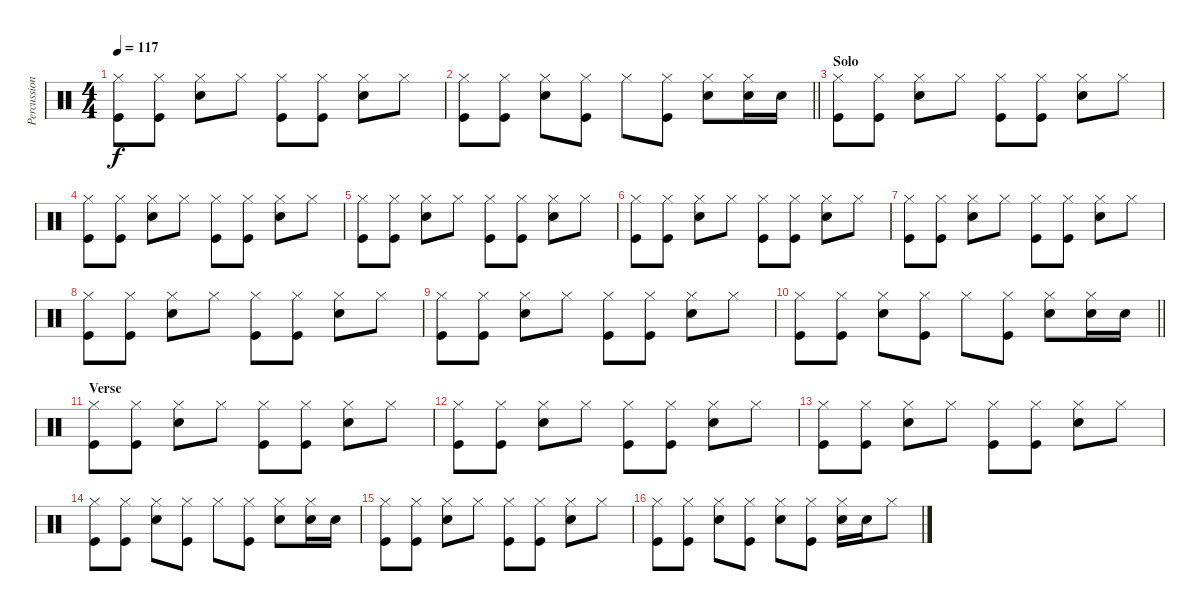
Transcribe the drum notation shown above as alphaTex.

\track ("Percussion" "Percussion") {instrument percussion}
\staff
\articulation defaults
\ts (4 4)
\tempo 117
\clef neutral
\ks c
("Hi-Hat (closed)" "Kick (hit)").8{dy f} ("Hi-Hat (closed)" "Kick (hit)").8 ("Hi-Hat (closed)" "Snare (hit) 2").8 "Hi-Hat (closed)".8 ("Hi-Hat (closed)" "Kick (hit)").8 ("Hi-Hat (closed)" "Kick (hit)").8 ("Hi-Hat (closed)" "Snare (hit) 2").8 "Hi-Hat (closed)".8 |
\barLineRight lightlight
("Hi-Hat (closed)" "Kick (hit)").8 ("Hi-Hat (closed)" "Kick (hit)").8 ("Hi-Hat (closed)" "Snare (hit) 2").8 ("Hi-Hat (closed)" "Kick (hit)").8 "Hi-Hat (closed)".8 ("Hi-Hat (closed)" "Kick (hit)").8 ("Hi-Hat (closed)" "Snare (hit) 2").8 ("Hi-Hat (closed)" "Snare (hit) 2").16 "Snare (hit) 2".16 |
\section ("" "Solo")
("Hi-Hat (closed)" "Kick (hit)").8 ("Hi-Hat (closed)" "Kick (hit)").8 ("Hi-Hat (closed)" "Snare (hit) 2").8 "Hi-Hat (closed)".8 ("Hi-Hat (closed)" "Kick (hit)").8 ("Hi-Hat (closed)" "Kick (hit)").8 ("Hi-Hat (closed)" "Snare (hit) 2").8 "Hi-Hat (closed)".8 |
("Hi-Hat (closed)" "Kick (hit)").8 ("Hi-Hat (closed)" "Kick (hit)").8 ("Hi-Hat (closed)" "Snare (hit) 2").8 "Hi-Hat (closed)".8 ("Hi-Hat (closed)" "Kick (hit)").8 ("Hi-Hat (closed)" "Kick (hit)").8 ("Hi-Hat (closed)" "Snare (hit) 2").8 "Hi-Hat (closed)".8 |
("Hi-Hat (closed)" "Kick (hit)").8 ("Hi-Hat (closed)" "Kick (hit)").8 ("Hi-Hat (closed)" "Snare (hit) 2").8 "Hi-Hat (closed)".8 ("Hi-Hat (closed)" "Kick (hit)").8 ("Hi-Hat (closed)" "Kick (hit)").8 ("Hi-Hat (closed)" "Snare (hit) 2").8 "Hi-Hat (closed)".8 |
("Hi-Hat (closed)" "Kick (hit)").8 ("Hi-Hat (closed)" "Kick (hit)").8 ("Hi-Hat (closed)" "Snare (hit) 2").8 "Hi-Hat (closed)".8 ("Hi-Hat (closed)" "Kick (hit)").8 ("Hi-Hat (closed)" "Kick (hit)").8 ("Hi-Hat (closed)" "Snare (hit) 2").8 "Hi-Hat (closed)".8 |
("Hi-Hat (closed)" "Kick (hit)").8 ("Hi-Hat (closed)" "Kick (hit)").8 ("Hi-Hat (closed)" "Snare (hit) 2").8 "Hi-Hat (closed)".8 ("Hi-Hat (closed)" "Kick (hit)").8 ("Hi-Hat (closed)" "Kick (hit)").8 ("Hi-Hat (closed)" "Snare (hit) 2").8 "Hi-Hat (closed)".8 |
("Hi-Hat (closed)" "Kick (hit)").8 ("Hi-Hat (closed)" "Kick (hit)").8 ("Hi-Hat (closed)" "Snare (hit) 2").8 "Hi-Hat (closed)".8 ("Hi-Hat (closed)" "Kick (hit)").8 ("Hi-Hat (closed)" "Kick (hit)").8 ("Hi-Hat (closed)" "Snare (hit) 2").8 "Hi-Hat (closed)".8 |
("Hi-Hat (closed)" "Kick (hit)").8 ("Hi-Hat (closed)" "Kick (hit)").8 ("Hi-Hat (closed)" "Snare (hit) 2").8 "Hi-Hat (closed)".8 ("Hi-Hat (closed)" "Kick (hit)").8 ("Hi-Hat (closed)" "Kick (hit)").8 ("Hi-Hat (closed)" "Snare (hit) 2").8 "Hi-Hat (closed)".8 |
\barLineRight lightlight
("Hi-Hat (closed)" "Kick (hit)").8 ("Hi-Hat (closed)" "Kick (hit)").8 ("Hi-Hat (closed)" "Snare (hit) 2").8 ("Hi-Hat (closed)" "Kick (hit)").8 "Hi-Hat (closed)".8 ("Hi-Hat (closed)" "Kick (hit)").8 ("Hi-Hat (closed)" "Snare (hit) 2").8 ("Hi-Hat (closed)" "Snare (hit) 2").16 "Snare (hit) 2".16 |
\section ("" "Verse")
("Hi-Hat (closed)" "Kick (hit)").8 ("Hi-Hat (closed)" "Kick (hit)").8 ("Hi-Hat (closed)" "Snare (hit) 2").8 "Hi-Hat (closed)".8 ("Hi-Hat (closed)" "Kick (hit)").8 ("Hi-Hat (closed)" "Kick (hit)").8 ("Hi-Hat (closed)" "Snare (hit) 2").8 "Hi-Hat (closed)".8 |
("Hi-Hat (closed)" "Kick (hit)").8 ("Hi-Hat (closed)" "Kick (hit)").8 ("Hi-Hat (closed)" "Snare (hit) 2").8 "Hi-Hat (closed)".8 ("Hi-Hat (closed)" "Kick (hit)").8 ("Hi-Hat (closed)" "Kick (hit)").8 ("Hi-Hat (closed)" "Snare (hit) 2").8 "Hi-Hat (closed)".8 |
("Hi-Hat (closed)" "Kick (hit)").8 ("Hi-Hat (closed)" "Kick (hit)").8 ("Hi-Hat (closed)" "Snare (hit) 2").8 "Hi-Hat (closed)".8 ("Hi-Hat (closed)" "Kick (hit)").8 ("Hi-Hat (closed)" "Kick (hit)").8 ("Hi-Hat (closed)" "Snare (hit) 2").8 "Hi-Hat (closed)".8 |
("Hi-Hat (closed)" "Kick (hit)").8 ("Hi-Hat (closed)" "Kick (hit)").8 ("Hi-Hat (closed)" "Snare (hit) 2").8 ("Hi-Hat (closed)" "Kick (hit)").8 "Hi-Hat (closed)".8 ("Hi-Hat (closed)" "Kick (hit)").8 ("Hi-Hat (closed)" "Snare (hit) 2").8 ("Hi-Hat (closed)" "Snare (hit) 2").16 "Snare (hit) 2".16 |
("Hi-Hat (closed)" "Kick (hit)").8 ("Hi-Hat (closed)" "Kick (hit)").8 ("Hi-Hat (closed)" "Snare (hit) 2").8 "Hi-Hat (closed)".8 ("Hi-Hat (closed)" "Kick (hit)").8 ("Hi-Hat (closed)" "Kick (hit)").8 ("Hi-Hat (closed)" "Snare (hit) 2").8 "Hi-Hat (closed)".8 |
("Hi-Hat (closed)" "Kick (hit)").8 ("Hi-Hat (closed)" "Kick (hit)").8 ("Hi-Hat (closed)" "Snare (hit) 2").8 ("Hi-Hat (closed)" "Kick (hit)").8 ("Hi-Hat (closed)" "Snare (hit) 2").8 ("Hi-Hat (closed)" "Kick (hit)").8 ("Hi-Hat (closed)" "Snare (hit) 2").16 "Snare (hit) 2".16 "Hi-Hat (closed)".8
